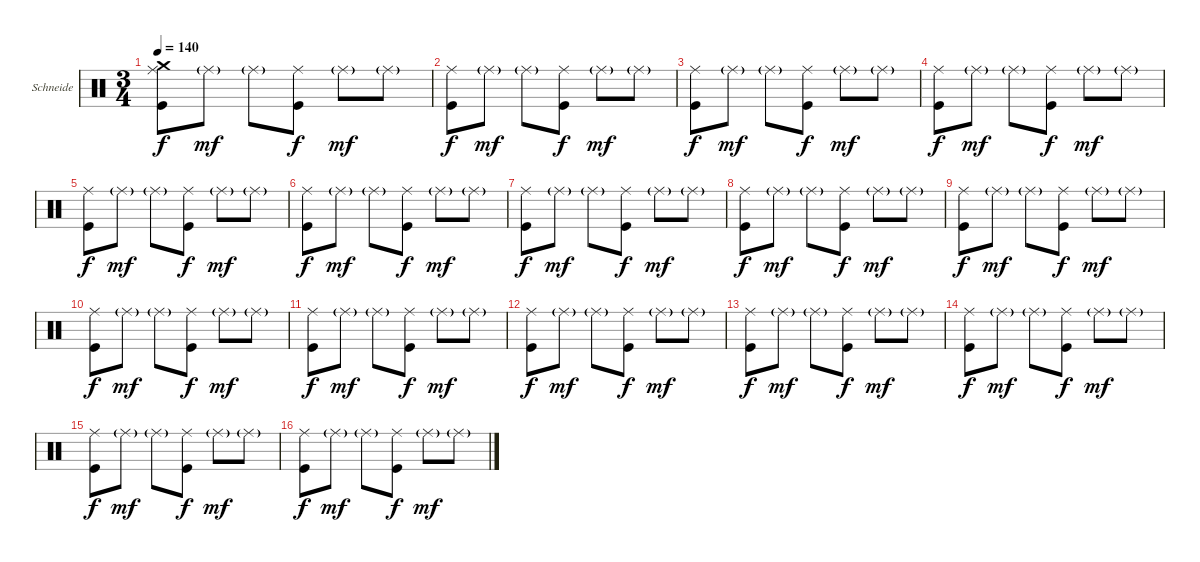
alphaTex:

\bracketExtendMode groupsimilarinstruments
\firstSystemTrackNameOrientation horizontal
\otherSystemsTrackNameOrientation horizontal
\track ("Christoph \"Doom\" Schneider" "Schneide") {instrument percussion}
\staff {score}
\articulation defaults
\ts (3 4)
\tempo 140
\clef neutral
\ks c
("Ride (middle)" "Kick (hit)" "Crash medium (hit)").8{dy f} "Ride (middle)"{g}.8{dy mf} "Ride (middle)"{g}.8 ("Ride (middle)" "Kick (hit)").8{dy f} "Ride (middle)"{g}.8{dy mf} "Ride (middle)"{g}.8 |
("Ride (middle)" "Kick (hit)").8{dy f} "Ride (middle)"{g}.8{dy mf} "Ride (middle)"{g}.8 ("Ride (middle)" "Kick (hit)").8{dy f} "Ride (middle)"{g}.8{dy mf} "Ride (middle)"{g}.8 |
("Ride (middle)" "Kick (hit)").8{dy f} "Ride (middle)"{g}.8{dy mf} "Ride (middle)"{g}.8 ("Ride (middle)" "Kick (hit)").8{dy f} "Ride (middle)"{g}.8{dy mf} "Ride (middle)"{g}.8 |
("Ride (middle)" "Kick (hit)").8{dy f} "Ride (middle)"{g}.8{dy mf} "Ride (middle)"{g}.8 ("Ride (middle)" "Kick (hit)").8{dy f} "Ride (middle)"{g}.8{dy mf} "Ride (middle)"{g}.8 |
("Ride (middle)" "Kick (hit)").8{dy f} "Ride (middle)"{g}.8{dy mf} "Ride (middle)"{g}.8 ("Ride (middle)" "Kick (hit)").8{dy f} "Ride (middle)"{g}.8{dy mf} "Ride (middle)"{g}.8 |
("Ride (middle)" "Kick (hit)").8{dy f} "Ride (middle)"{g}.8{dy mf} "Ride (middle)"{g}.8 ("Ride (middle)" "Kick (hit)").8{dy f} "Ride (middle)"{g}.8{dy mf} "Ride (middle)"{g}.8 |
("Ride (middle)" "Kick (hit)").8{dy f} "Ride (middle)"{g}.8{dy mf} "Ride (middle)"{g}.8 ("Ride (middle)" "Kick (hit)").8{dy f} "Ride (middle)"{g}.8{dy mf} "Ride (middle)"{g}.8 |
("Ride (middle)" "Kick (hit)").8{dy f} "Ride (middle)"{g}.8{dy mf} "Ride (middle)"{g}.8 ("Ride (middle)" "Kick (hit)").8{dy f} "Ride (middle)"{g}.8{dy mf} "Ride (middle)"{g}.8 |
("Ride (middle)" "Kick (hit)").8{dy f} "Ride (middle)"{g}.8{dy mf} "Ride (middle)"{g}.8 ("Ride (middle)" "Kick (hit)").8{dy f} "Ride (middle)"{g}.8{dy mf} "Ride (middle)"{g}.8 |
("Ride (middle)" "Kick (hit)").8{dy f} "Ride (middle)"{g}.8{dy mf} "Ride (middle)"{g}.8 ("Ride (middle)" "Kick (hit)").8{dy f} "Ride (middle)"{g}.8{dy mf} "Ride (middle)"{g}.8 |
("Ride (middle)" "Kick (hit)").8{dy f} "Ride (middle)"{g}.8{dy mf} "Ride (middle)"{g}.8 ("Ride (middle)" "Kick (hit)").8{dy f} "Ride (middle)"{g}.8{dy mf} "Ride (middle)"{g}.8 |
("Ride (middle)" "Kick (hit)").8{dy f} "Ride (middle)"{g}.8{dy mf} "Ride (middle)"{g}.8 ("Ride (middle)" "Kick (hit)").8{dy f} "Ride (middle)"{g}.8{dy mf} "Ride (middle)"{g}.8 |
("Ride (middle)" "Kick (hit)").8{dy f} "Ride (middle)"{g}.8{dy mf} "Ride (middle)"{g}.8 ("Ride (middle)" "Kick (hit)").8{dy f} "Ride (middle)"{g}.8{dy mf} "Ride (middle)"{g}.8 |
("Ride (middle)" "Kick (hit)").8{dy f} "Ride (middle)"{g}.8{dy mf} "Ride (middle)"{g}.8 ("Ride (middle)" "Kick (hit)").8{dy f} "Ride (middle)"{g}.8{dy mf} "Ride (middle)"{g}.8 |
("Ride (middle)" "Kick (hit)").8{dy f} "Ride (middle)"{g}.8{dy mf} "Ride (middle)"{g}.8 ("Ride (middle)" "Kick (hit)").8{dy f} "Ride (middle)"{g}.8{dy mf} "Ride (middle)"{g}.8 |
("Ride (middle)" "Kick (hit)").8{dy f} "Ride (middle)"{g}.8{dy mf} "Ride (middle)"{g}.8 ("Ride (middle)" "Kick (hit)").8{dy f} "Ride (middle)"{g}.8{dy mf} "Ride (middle)"{g}.8
